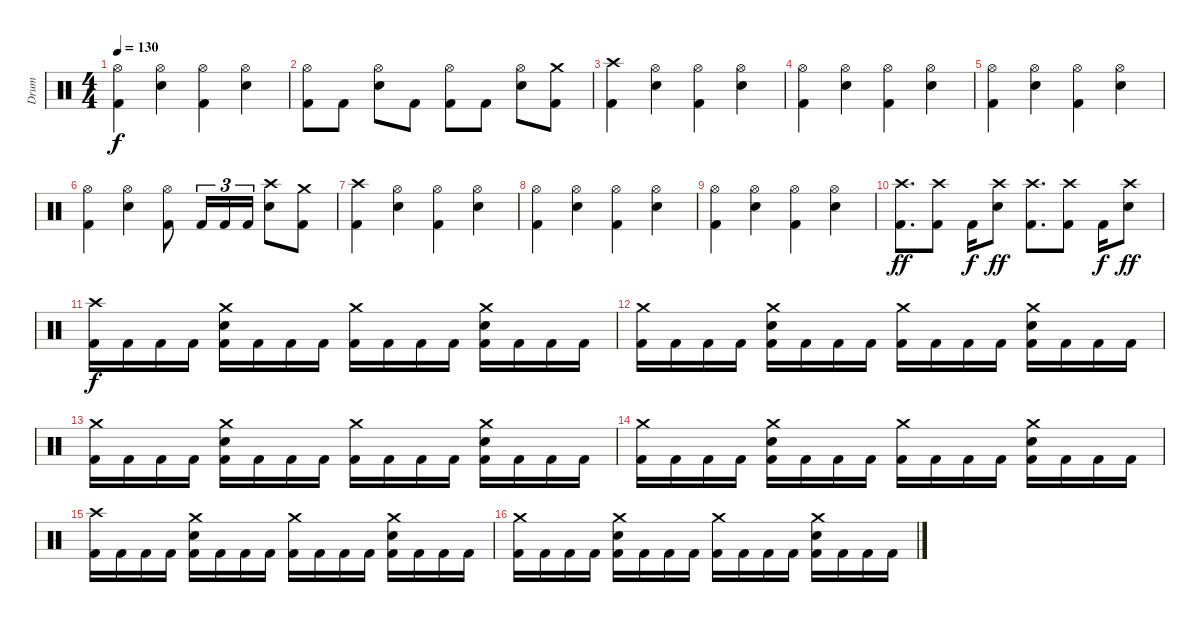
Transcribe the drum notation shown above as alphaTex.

\track ("Drum" "Drum") {instrument percussion}
\staff {score}
\articulation defaults
\ts (4 4)
\tempo 130
\clef neutral
\ks c
("Kick (hit) 2" "Hi-Hat (open)").4{dy f} ("Electric Snare (hit)" "Hi-Hat (open)").4 ("Kick (hit) 2" "Hi-Hat (open)").4 ("Electric Snare (hit)" "Hi-Hat (open)").4 |
("Kick (hit) 2" "Hi-Hat (open)").8 "Kick (hit) 2".8 ("Electric Snare (hit)" "Hi-Hat (open)").8 "Kick (hit) 2".8 ("Kick (hit) 2" "Hi-Hat (open)").8 "Kick (hit) 2".8 ("Electric Snare (hit)" "Hi-Hat (open)").8 ("Kick (hit) 2" "Crash medium (hit)").8 |
("Kick (hit) 2" "Crash high (hit)").4 ("Electric Snare (hit)" "Hi-Hat (open)").4 ("Kick (hit) 2" "Hi-Hat (open)").4 ("Electric Snare (hit)" "Hi-Hat (open)").4 |
("Kick (hit) 2" "Hi-Hat (open)").4 ("Electric Snare (hit)" "Hi-Hat (open)").4 ("Kick (hit) 2" "Hi-Hat (open)").4 ("Electric Snare (hit)" "Hi-Hat (open)").4 |
("Kick (hit) 2" "Hi-Hat (open)").4 ("Electric Snare (hit)" "Hi-Hat (open)").4 ("Kick (hit) 2" "Hi-Hat (open)").4 ("Electric Snare (hit)" "Hi-Hat (open)").4 |
("Kick (hit) 2" "Hi-Hat (open)").4 ("Electric Snare (hit)" "Hi-Hat (open)").4 ("Kick (hit) 2" "Hi-Hat (open)").8 "Kick (hit) 2".16{tu (3 2)} "Kick (hit) 2".16{tu (3 2)} "Kick (hit) 2".16{tu (3 2)} ("Electric Snare (hit)" "Crash high (hit)").8 ("Kick (hit) 2" "Crash medium (hit)").8 |
("Kick (hit) 2" "Crash high (hit)").4 ("Electric Snare (hit)" "Hi-Hat (open)").4 ("Kick (hit) 2" "Hi-Hat (open)").4 ("Electric Snare (hit)" "Hi-Hat (open)").4 |
("Kick (hit) 2" "Hi-Hat (open)").4 ("Electric Snare (hit)" "Hi-Hat (open)").4 ("Kick (hit) 2" "Hi-Hat (open)").4 ("Electric Snare (hit)" "Hi-Hat (open)").4 |
("Kick (hit) 2" "Hi-Hat (open)").4 ("Electric Snare (hit)" "Hi-Hat (open)").4 ("Kick (hit) 2" "Hi-Hat (open)").4 ("Electric Snare (hit)" "Hi-Hat (open)").4 |
("Kick (hit) 2" "Crash high (hit)").8{d dy ff} ("Kick (hit) 2" "Crash high (hit)").8 "Kick (hit) 2".16{dy f} ("Electric Snare (hit)" "Crash high (hit)").8{dy ff} ("Kick (hit) 2" "Crash high (hit)").8{d} ("Kick (hit) 2" "Crash high (hit)").8 "Kick (hit) 2".16{dy f} ("Electric Snare (hit)" "Crash high (hit)").8{dy ff} |
("Kick (hit) 2" "Crash high (hit)").16{dy f} "Kick (hit) 2".16 "Kick (hit) 2".16 "Kick (hit) 2".16 ("Kick (hit) 2" "Electric Snare (hit)" "Crash medium (hit)").16 "Kick (hit) 2".16 "Kick (hit) 2".16 "Kick (hit) 2".16 ("Kick (hit) 2" "Crash medium (hit)").16 "Kick (hit) 2".16 "Kick (hit) 2".16 "Kick (hit) 2".16 ("Kick (hit) 2" "Electric Snare (hit)" "Crash medium (hit)").16 "Kick (hit) 2".16 "Kick (hit) 2".16 "Kick (hit) 2".16 |
("Kick (hit) 2" "Crash medium (hit)").16 "Kick (hit) 2".16 "Kick (hit) 2".16 "Kick (hit) 2".16 ("Kick (hit) 2" "Electric Snare (hit)" "Crash medium (hit)").16 "Kick (hit) 2".16 "Kick (hit) 2".16 "Kick (hit) 2".16 ("Kick (hit) 2" "Crash medium (hit)").16 "Kick (hit) 2".16 "Kick (hit) 2".16 "Kick (hit) 2".16 ("Kick (hit) 2" "Electric Snare (hit)" "Crash medium (hit)").16 "Kick (hit) 2".16 "Kick (hit) 2".16 "Kick (hit) 2".16 |
("Kick (hit) 2" "Crash medium (hit)").16 "Kick (hit) 2".16 "Kick (hit) 2".16 "Kick (hit) 2".16 ("Kick (hit) 2" "Electric Snare (hit)" "Crash medium (hit)").16 "Kick (hit) 2".16 "Kick (hit) 2".16 "Kick (hit) 2".16 ("Kick (hit) 2" "Crash medium (hit)").16 "Kick (hit) 2".16 "Kick (hit) 2".16 "Kick (hit) 2".16 ("Kick (hit) 2" "Electric Snare (hit)" "Crash medium (hit)").16 "Kick (hit) 2".16 "Kick (hit) 2".16 "Kick (hit) 2".16 |
("Kick (hit) 2" "Crash medium (hit)").16 "Kick (hit) 2".16 "Kick (hit) 2".16 "Kick (hit) 2".16 ("Kick (hit) 2" "Electric Snare (hit)" "Crash medium (hit)").16 "Kick (hit) 2".16 "Kick (hit) 2".16 "Kick (hit) 2".16 ("Kick (hit) 2" "Crash medium (hit)").16 "Kick (hit) 2".16 "Kick (hit) 2".16 "Kick (hit) 2".16 ("Kick (hit) 2" "Electric Snare (hit)" "Crash medium (hit)").16 "Kick (hit) 2".16 "Kick (hit) 2".16 "Kick (hit) 2".16 |
("Kick (hit) 2" "Crash high (hit)").16 "Kick (hit) 2".16 "Kick (hit) 2".16 "Kick (hit) 2".16 ("Kick (hit) 2" "Electric Snare (hit)" "Crash medium (hit)").16 "Kick (hit) 2".16 "Kick (hit) 2".16 "Kick (hit) 2".16 ("Kick (hit) 2" "Crash medium (hit)").16 "Kick (hit) 2".16 "Kick (hit) 2".16 "Kick (hit) 2".16 ("Kick (hit) 2" "Electric Snare (hit)" "Crash medium (hit)").16 "Kick (hit) 2".16 "Kick (hit) 2".16 "Kick (hit) 2".16 |
("Kick (hit) 2" "Crash medium (hit)").16 "Kick (hit) 2".16 "Kick (hit) 2".16 "Kick (hit) 2".16 ("Kick (hit) 2" "Electric Snare (hit)" "Crash medium (hit)").16 "Kick (hit) 2".16 "Kick (hit) 2".16 "Kick (hit) 2".16 ("Kick (hit) 2" "Crash medium (hit)").16 "Kick (hit) 2".16 "Kick (hit) 2".16 "Kick (hit) 2".16 ("Kick (hit) 2" "Electric Snare (hit)" "Crash medium (hit)").16 "Kick (hit) 2".16 "Kick (hit) 2".16 "Kick (hit) 2".16
